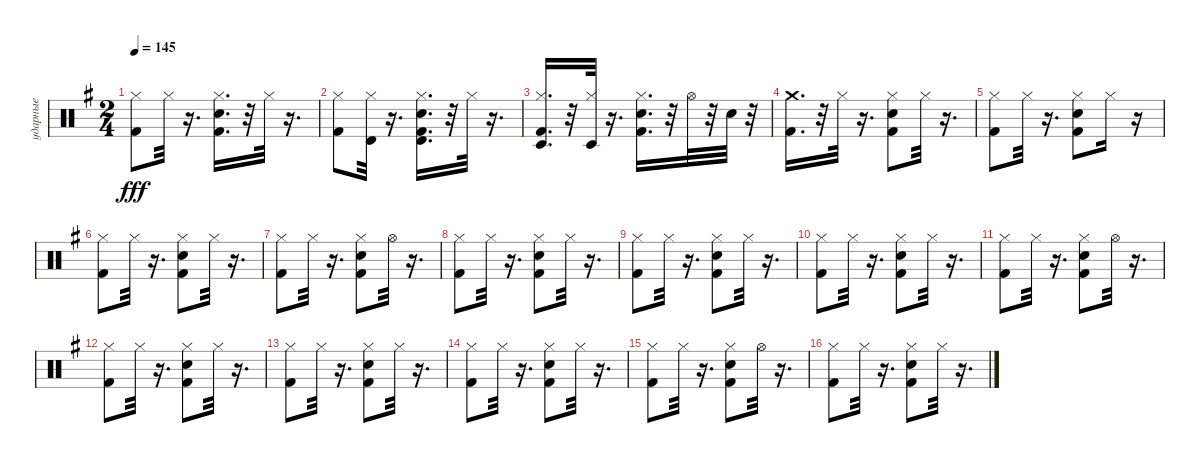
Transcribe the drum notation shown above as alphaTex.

\track ("ударные" "ударные") {instrument percussion}
\staff {score}
\articulation defaults
\ts (2 4)
\tempo 145
\clef neutral
\ks eminor
("Kick (hit) 2" "Hi-Hat (closed)").8{dy fff} "Hi-Hat (closed)".32 r.16{d} ("Hi-Hat (closed)" "Snare (hit) 2" "Kick (hit) 2").16{d} r.32 "Hi-Hat (closed)".32 r.16{d} |
("Kick (hit) 2" "Hi-Hat (closed)").8 ("Timbale high (hit)" "Hi-Hat (closed)").32 r.16{d} ("Hi-Hat (closed)" "Kick (hit) 2" "Snare (hit) 2" "Timbale high (hit)").16{d} r.32 "Hi-Hat (closed)".32 r.16{d} |
("Kick (hit) 2" "Timbale low (hit)" "Hi-Hat (closed)").16{d} r.32 ("Timbale low (hit)" "Hi-Hat (closed)").32 r.16{d} ("Snare (hit) 2" "Kick (hit) 2" "Hi-Hat (closed)").16{d} r.32 "Hi-Hat (open)".32 r.32 "Snare (hit) 2".32 r.32 |
("Kick (hit) 2" "Crash medium (hit)").16{d} r.32 "Hi-Hat (closed)".32 r.16{d} ("Kick (hit) 2" "Snare (hit) 2" "Hi-Hat (closed)").8 "Hi-Hat (closed)".32 r.16{d} |
("Kick (hit) 2" "Hi-Hat (closed)").8 "Hi-Hat (closed)".32 r.16{d} ("Snare (hit) 2" "Kick (hit) 2" "Hi-Hat (closed)").8 "Hi-Hat (closed)".16 r.16 |
("Kick (hit) 2" "Hi-Hat (closed)").8 "Hi-Hat (closed)".32 r.16{d} ("Hi-Hat (closed)" "Snare (hit) 2" "Kick (hit) 2").8 "Hi-Hat (closed)".32 r.16{d} |
("Kick (hit) 2" "Hi-Hat (closed)").8 "Hi-Hat (closed)".32 r.16{d} ("Kick (hit) 2" "Snare (hit) 2" "Hi-Hat (closed)").8 "Hi-Hat (open)".32 r.16{d} |
("Kick (hit) 2" "Hi-Hat (closed)").8 "Hi-Hat (closed)".32 r.16{d} ("Kick (hit) 2" "Hi-Hat (closed)" "Snare (hit) 2").8 "Hi-Hat (closed)".32 r.16{d} |
("Kick (hit) 2" "Hi-Hat (closed)").8 "Hi-Hat (closed)".32 r.16{d} ("Snare (hit) 2" "Kick (hit) 2" "Hi-Hat (closed)").8 "Hi-Hat (closed)".32 r.16{d} |
("Kick (hit) 2" "Hi-Hat (closed)").8 "Hi-Hat (closed)".32 r.16{d} ("Snare (hit) 2" "Kick (hit) 2" "Hi-Hat (closed)").8 "Hi-Hat (closed)".32 r.16{d} |
("Kick (hit) 2" "Hi-Hat (closed)").8 "Hi-Hat (closed)".32 r.16{d} ("Snare (hit) 2" "Kick (hit) 2" "Hi-Hat (closed)").8 "Hi-Hat (open)".32 r.16{d} |
("Kick (hit) 2" "Hi-Hat (closed)").8 "Hi-Hat (closed)".32 r.16{d} ("Snare (hit) 2" "Kick (hit) 2" "Hi-Hat (closed)").8 "Hi-Hat (closed)".32 r.16{d} |
("Kick (hit) 2" "Hi-Hat (closed)").8 "Hi-Hat (closed)".32 r.16{d} ("Hi-Hat (closed)" "Snare (hit) 2" "Kick (hit) 2").8 "Hi-Hat (closed)".32 r.16{d} |
("Kick (hit) 2" "Hi-Hat (closed)").8 "Hi-Hat (closed)".32 r.16{d} ("Hi-Hat (closed)" "Snare (hit) 2" "Kick (hit) 2").8 "Hi-Hat (closed)".32 r.16{d} |
("Kick (hit) 2" "Hi-Hat (closed)").8 "Hi-Hat (closed)".32 r.16{d} ("Snare (hit) 2" "Kick (hit) 2" "Hi-Hat (closed)").8 "Hi-Hat (open)".32 r.16{d} |
("Kick (hit) 2" "Hi-Hat (closed)").8 "Hi-Hat (closed)".32 r.16{d} ("Snare (hit) 2" "Kick (hit) 2" "Hi-Hat (closed)").8 "Hi-Hat (closed)".32 r.16{d}
